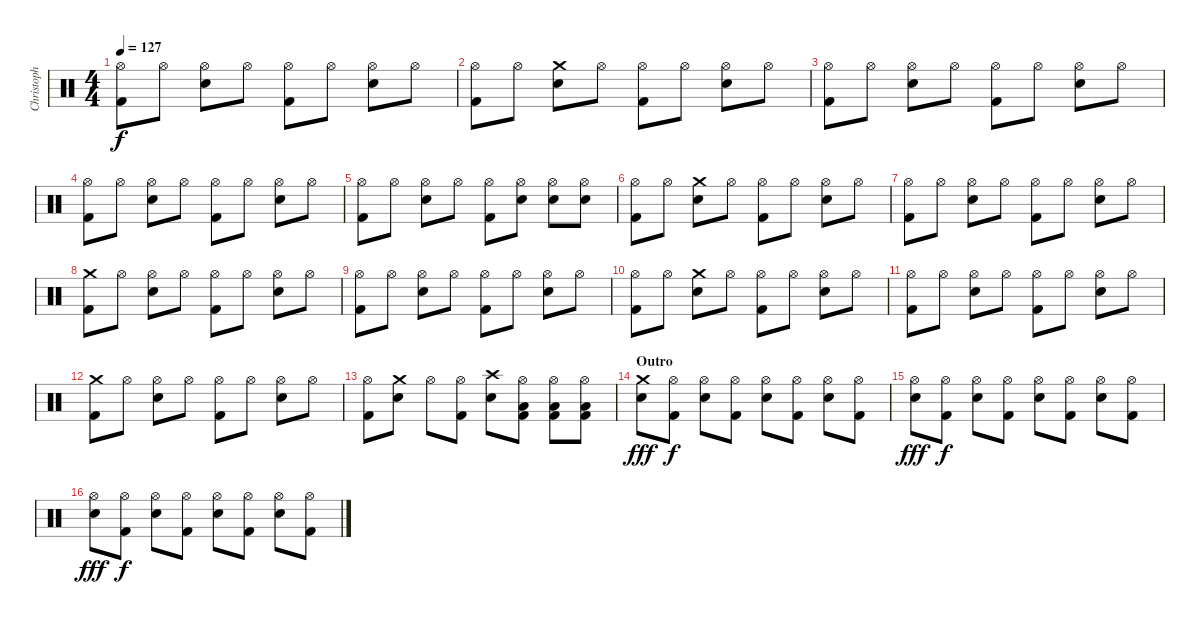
\track ("Christoph Doom Schneider - Drums" "Christoph ") {instrument percussion}
\staff {score}
\articulation defaults
\ts (4 4)
\tempo 127
\clef neutral
\ks c
("Hi-Hat (open)" "Kick (hit) 2").8{dy f} "Hi-Hat (open)".8 ("Hi-Hat (open)" "Electric Snare (hit)").8 "Hi-Hat (open)".8 ("Hi-Hat (open)" "Kick (hit) 2").8 "Hi-Hat (open)".8 ("Hi-Hat (open)" "Electric Snare (hit)").8 "Hi-Hat (open)".8 |
("Hi-Hat (open)" "Kick (hit) 2").8 "Hi-Hat (open)".8 ("Crash medium (hit)" "Electric Snare (hit)").8 "Hi-Hat (open)".8 ("Hi-Hat (open)" "Kick (hit) 2").8 "Hi-Hat (open)".8 ("Hi-Hat (open)" "Electric Snare (hit)").8 "Hi-Hat (open)".8 |
("Hi-Hat (open)" "Kick (hit) 2").8 "Hi-Hat (open)".8 ("Hi-Hat (open)" "Electric Snare (hit)").8 "Hi-Hat (open)".8 ("Hi-Hat (open)" "Kick (hit) 2").8 "Hi-Hat (open)".8 ("Hi-Hat (open)" "Electric Snare (hit)").8 "Hi-Hat (open)".8 |
("Hi-Hat (open)" "Kick (hit) 2").8 "Hi-Hat (open)".8 ("Hi-Hat (open)" "Electric Snare (hit)").8 "Hi-Hat (open)".8 ("Hi-Hat (open)" "Kick (hit) 2").8 "Hi-Hat (open)".8 ("Hi-Hat (open)" "Electric Snare (hit)").8 "Hi-Hat (open)".8 |
("Hi-Hat (open)" "Kick (hit) 2").8 "Hi-Hat (open)".8 ("Hi-Hat (open)" "Electric Snare (hit)").8 "Hi-Hat (open)".8 ("Hi-Hat (open)" "Kick (hit) 2").8 ("Hi-Hat (open)" "Electric Snare (hit)").8 ("Hi-Hat (open)" "Electric Snare (hit)").8 ("Hi-Hat (open)" "Electric Snare (hit)").8 |
("Hi-Hat (open)" "Kick (hit) 2").8 "Hi-Hat (open)".8 ("Crash medium (hit)" "Electric Snare (hit)").8 "Hi-Hat (open)".8 ("Hi-Hat (open)" "Kick (hit) 2").8 "Hi-Hat (open)".8 ("Hi-Hat (open)" "Electric Snare (hit)").8 "Hi-Hat (open)".8 |
("Hi-Hat (open)" "Kick (hit) 2").8 "Hi-Hat (open)".8 ("Hi-Hat (open)" "Electric Snare (hit)").8 "Hi-Hat (open)".8 ("Hi-Hat (open)" "Kick (hit) 2").8 "Hi-Hat (open)".8 ("Hi-Hat (open)" "Electric Snare (hit)").8 "Hi-Hat (open)".8 |
("Crash medium (hit)" "Kick (hit) 2").8 "Hi-Hat (open)".8 ("Hi-Hat (open)" "Electric Snare (hit)").8 "Hi-Hat (open)".8 ("Hi-Hat (open)" "Kick (hit) 2").8 "Hi-Hat (open)".8 ("Hi-Hat (open)" "Electric Snare (hit)").8 "Hi-Hat (open)".8 |
("Hi-Hat (open)" "Kick (hit) 2").8 "Hi-Hat (open)".8 ("Hi-Hat (open)" "Electric Snare (hit)").8 "Hi-Hat (open)".8 ("Hi-Hat (open)" "Kick (hit) 2").8 "Hi-Hat (open)".8 ("Hi-Hat (open)" "Electric Snare (hit)").8 "Hi-Hat (open)".8 |
("Hi-Hat (open)" "Kick (hit) 2").8 "Hi-Hat (open)".8 ("Crash medium (hit)" "Electric Snare (hit)").8 "Hi-Hat (open)".8 ("Hi-Hat (open)" "Kick (hit) 2").8 "Hi-Hat (open)".8 ("Hi-Hat (open)" "Electric Snare (hit)").8 "Hi-Hat (open)".8 |
("Hi-Hat (open)" "Kick (hit) 2").8 "Hi-Hat (open)".8 ("Hi-Hat (open)" "Electric Snare (hit)").8 "Hi-Hat (open)".8 ("Hi-Hat (open)" "Kick (hit) 2").8 "Hi-Hat (open)".8 ("Hi-Hat (open)" "Electric Snare (hit)").8 "Hi-Hat (open)".8 |
("Crash medium (hit)" "Kick (hit) 2").8 "Hi-Hat (open)".8 ("Hi-Hat (open)" "Electric Snare (hit)").8 "Hi-Hat (open)".8 ("Hi-Hat (open)" "Kick (hit) 2").8 "Hi-Hat (open)".8 ("Hi-Hat (open)" "Electric Snare (hit)").8 "Hi-Hat (open)".8 |
("Hi-Hat (open)" "Kick (hit) 2").8 ("Crash medium (hit)" "Electric Snare (hit)").8 "Hi-Hat (open)".8 ("Hi-Hat (open)" "Kick (hit) 2").8 ("Crash high (hit)" "Electric Snare (hit)").8 ("Hi-Hat (open)" "Low Floor Tom (hit)" "Kick (hit) 2").8 ("Hi-Hat (open)" "Low Floor Tom (hit)" "Kick (hit) 2").8 ("Hi-Hat (open)" "Low Floor Tom (hit)" "Kick (hit) 2").8 |
\section ("" "Outro")
("Crash medium (hit)" "Electric Snare (hit)").8{dy fff} ("Hi-Hat (open)" "Kick (hit) 2").8{dy f} ("Hi-Hat (open)" "Electric Snare (hit)").8 ("Hi-Hat (open)" "Kick (hit) 2").8 ("Hi-Hat (open)" "Electric Snare (hit)").8 ("Hi-Hat (open)" "Kick (hit) 2").8 ("Hi-Hat (open)" "Electric Snare (hit)").8 ("Hi-Hat (open)" "Kick (hit) 2").8 |
("Hi-Hat (open)" "Electric Snare (hit)").8{dy fff} ("Hi-Hat (open)" "Kick (hit) 2").8{dy f} ("Hi-Hat (open)" "Electric Snare (hit)").8 ("Hi-Hat (open)" "Kick (hit) 2").8 ("Hi-Hat (open)" "Electric Snare (hit)").8 ("Hi-Hat (open)" "Kick (hit) 2").8 ("Hi-Hat (open)" "Electric Snare (hit)").8 ("Hi-Hat (open)" "Kick (hit) 2").8 |
("Hi-Hat (open)" "Electric Snare (hit)").8{dy fff} ("Hi-Hat (open)" "Kick (hit) 2").8{dy f} ("Hi-Hat (open)" "Electric Snare (hit)").8 ("Hi-Hat (open)" "Kick (hit) 2").8 ("Hi-Hat (open)" "Electric Snare (hit)").8 ("Hi-Hat (open)" "Kick (hit) 2").8 ("Hi-Hat (open)" "Electric Snare (hit)").8 ("Hi-Hat (open)" "Kick (hit) 2").8
